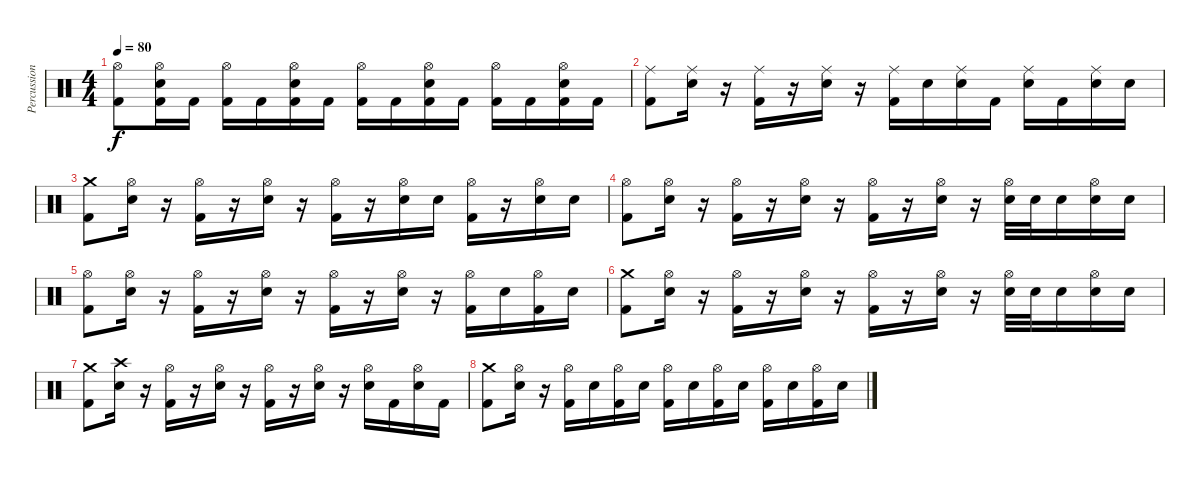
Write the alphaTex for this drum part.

\track ("Percussion" "Percussion") {instrument percussion}
\staff {score}
\articulation defaults
\ts (4 4)
\tempo 80
\clef neutral
\ks c
("Hi-Hat (open)" "Kick (hit) 2").8{dy f} ("Hi-Hat (open)" "Electric Snare (hit)" "Kick (hit) 2").16 "Kick (hit) 2".16 ("Hi-Hat (open)" "Kick (hit) 2").16 "Kick (hit) 2".16 ("Hi-Hat (open)" "Electric Snare (hit)" "Kick (hit) 2").16 "Kick (hit) 2".16 ("Hi-Hat (open)" "Kick (hit) 2").16 "Kick (hit) 2".16 ("Hi-Hat (open)" "Electric Snare (hit)" "Kick (hit) 2").16 "Kick (hit) 2".16 ("Hi-Hat (open)" "Kick (hit) 2").16 "Kick (hit) 2".16 ("Hi-Hat (open)" "Electric Snare (hit)" "Kick (hit) 2").16 "Kick (hit) 2".16 |
("Ride (middle)" "Kick (hit) 2").8 ("Ride (middle)" "Electric Snare (hit)").16 r.16 ("Ride (middle)" "Kick (hit) 2").16 r.16 ("Ride (middle)" "Electric Snare (hit)").16 r.16 ("Ride (middle)" "Kick (hit) 2").16 "Electric Snare (hit)".16 ("Ride (middle)" "Electric Snare (hit)").16 "Kick (hit) 2".16 ("Ride (middle)" "Electric Snare (hit)").16 "Kick (hit) 2".16 ("Ride (middle)" "Electric Snare (hit)").16 "Electric Snare (hit)".16 |
("Crash medium (hit)" "Kick (hit) 2").8 ("Hi-Hat (open)" "Electric Snare (hit)").16 r.16 ("Hi-Hat (open)" "Kick (hit) 2").16 r.16 ("Hi-Hat (open)" "Electric Snare (hit)").16 r.16 ("Hi-Hat (open)" "Kick (hit) 2").16 r.16 ("Hi-Hat (open)" "Electric Snare (hit)").16 "Electric Snare (hit)".16 ("Hi-Hat (open)" "Kick (hit) 2").16 r.16 ("Hi-Hat (open)" "Electric Snare (hit)").16 "Electric Snare (hit)".16 |
("Hi-Hat (open)" "Kick (hit) 2").8 ("Hi-Hat (open)" "Electric Snare (hit)").16 r.16 ("Hi-Hat (open)" "Kick (hit) 2").16 r.16 ("Hi-Hat (open)" "Electric Snare (hit)").16 r.16 ("Hi-Hat (open)" "Kick (hit) 2").16 r.16 ("Hi-Hat (open)" "Electric Snare (hit)").16 r.16 ("Hi-Hat (open)" "Electric Snare (hit)").32 "Electric Snare (hit)".32 "Electric Snare (hit)".16 ("Hi-Hat (open)" "Electric Snare (hit)").16 "Electric Snare (hit)".16 |
("Hi-Hat (open)" "Kick (hit) 2").8 ("Hi-Hat (open)" "Electric Snare (hit)").16 r.16 ("Hi-Hat (open)" "Kick (hit) 2").16 r.16 ("Hi-Hat (open)" "Electric Snare (hit)").16 r.16 ("Hi-Hat (open)" "Kick (hit) 2").16 r.16 ("Hi-Hat (open)" "Electric Snare (hit)").16 r.16 ("Hi-Hat (open)" "Kick (hit) 2").16 "Electric Snare (hit)".16 ("Hi-Hat (open)" "Kick (hit) 2").16 "Electric Snare (hit)".16 |
("Crash medium (hit)" "Kick (hit) 2").8 ("Hi-Hat (open)" "Electric Snare (hit)").16 r.16 ("Hi-Hat (open)" "Kick (hit) 2").16 r.16 ("Hi-Hat (open)" "Electric Snare (hit)").16 r.16 ("Hi-Hat (open)" "Kick (hit) 2").16 r.16 ("Hi-Hat (open)" "Electric Snare (hit)").16 r.16 ("Hi-Hat (open)" "Electric Snare (hit)").32 "Electric Snare (hit)".32 "Electric Snare (hit)".16 ("Hi-Hat (open)" "Electric Snare (hit)").16 "Electric Snare (hit)".16 |
("Crash medium (hit)" "Kick (hit) 2").8 ("Crash high (hit)" "Electric Snare (hit)").16 r.16 ("Hi-Hat (open)" "Kick (hit) 2").16 r.16 ("Hi-Hat (open)" "Electric Snare (hit)").16 r.16 ("Hi-Hat (open)" "Kick (hit) 2").16 r.16 ("Hi-Hat (open)" "Electric Snare (hit)").16 r.16 ("Hi-Hat (open)" "Electric Snare (hit)").16 "Kick (hit) 2".16 ("Hi-Hat (open)" "Electric Snare (hit)").16 "Kick (hit) 2".16 |
("Crash medium (hit)" "Kick (hit) 2").8 ("Hi-Hat (open)" "Electric Snare (hit)").16 r.16 ("Hi-Hat (open)" "Kick (hit) 2").16 "Electric Snare (hit)".16 ("Hi-Hat (open)" "Kick (hit) 2").16 "Electric Snare (hit)".16 ("Hi-Hat (open)" "Kick (hit) 2").16 "Electric Snare (hit)".16 ("Hi-Hat (open)" "Kick (hit) 2").16 "Electric Snare (hit)".16 ("Hi-Hat (open)" "Kick (hit) 2").16 "Electric Snare (hit)".16 ("Hi-Hat (open)" "Kick (hit) 2").16 "Electric Snare (hit)".16
